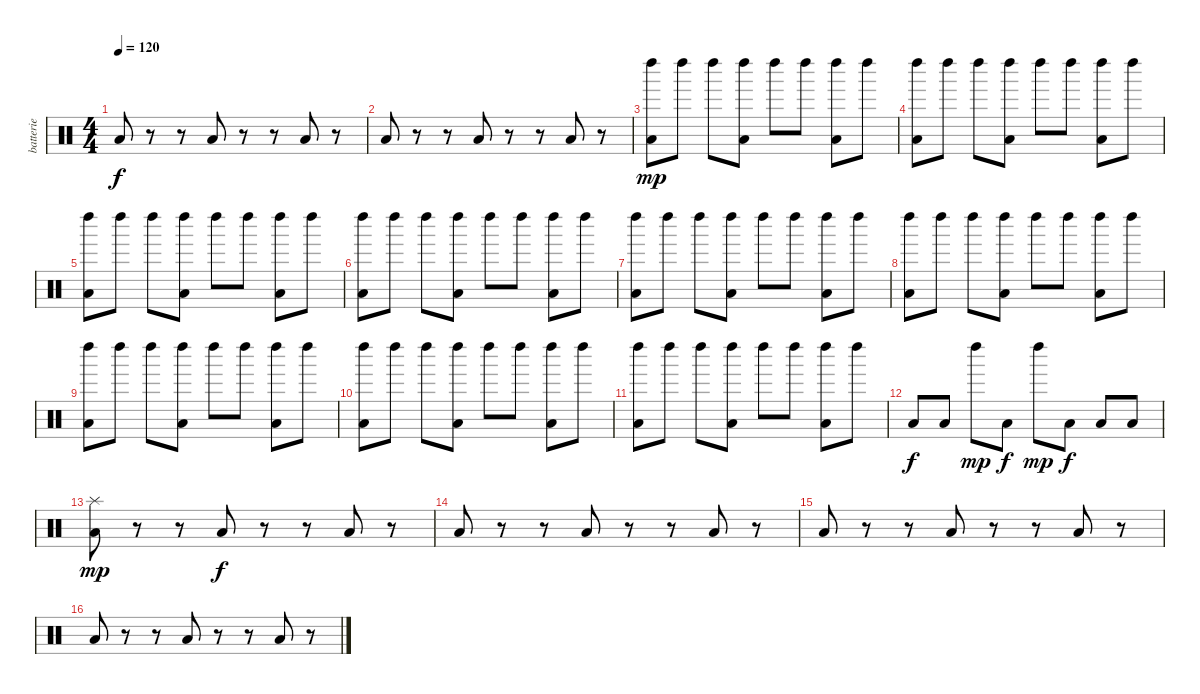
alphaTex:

\track ("batterie" "batterie") {instrument percussion}
\staff {score}
\articulation defaults
\ts (4 4)
\tempo 120
\clef neutral
\ks c "Low Floor Tom (hit)".8{dy f}
r.8 r.8 "Low Floor Tom (hit)".8 r.8 r.8 "Low Floor Tom (hit)".8 r.8 |
"Low Floor Tom (hit)".8 r.8 r.8 "Low Floor Tom (hit)".8 r.8 r.8 "Low Floor Tom (hit)".8 r.8 |
("Left Maraca (hit)" "Low Floor Tom (hit)").8{dy mp} "Left Maraca (hit)".8 "Left Maraca (hit)".8 ("Left Maraca (hit)" "Low Floor Tom (hit)").8 "Left Maraca (hit)".8 "Left Maraca (hit)".8 ("Left Maraca (hit)" "Low Floor Tom (hit)").8 "Left Maraca (hit)".8 |
("Left Maraca (hit)" "Low Floor Tom (hit)").8 "Left Maraca (hit)".8 "Left Maraca (hit)".8 ("Left Maraca (hit)" "Low Floor Tom (hit)").8 "Left Maraca (hit)".8 "Left Maraca (hit)".8 ("Left Maraca (hit)" "Low Floor Tom (hit)").8 "Left Maraca (hit)".8 |
("Left Maraca (hit)" "Low Floor Tom (hit)").8 "Left Maraca (hit)".8 "Left Maraca (hit)".8 ("Left Maraca (hit)" "Low Floor Tom (hit)").8 "Left Maraca (hit)".8 "Left Maraca (hit)".8 ("Left Maraca (hit)" "Low Floor Tom (hit)").8 "Left Maraca (hit)".8 |
("Left Maraca (hit)" "Low Floor Tom (hit)").8 "Left Maraca (hit)".8 "Left Maraca (hit)".8 ("Left Maraca (hit)" "Low Floor Tom (hit)").8 "Left Maraca (hit)".8 "Left Maraca (hit)".8 ("Left Maraca (hit)" "Low Floor Tom (hit)").8 "Left Maraca (hit)".8 |
("Left Maraca (hit)" "Low Floor Tom (hit)").8 "Left Maraca (hit)".8 "Left Maraca (hit)".8 ("Left Maraca (hit)" "Low Floor Tom (hit)").8 "Left Maraca (hit)".8 "Left Maraca (hit)".8 ("Left Maraca (hit)" "Low Floor Tom (hit)").8 "Left Maraca (hit)".8 |
("Left Maraca (hit)" "Low Floor Tom (hit)").8 "Left Maraca (hit)".8 "Left Maraca (hit)".8 ("Left Maraca (hit)" "Low Floor Tom (hit)").8 "Left Maraca (hit)".8 "Left Maraca (hit)".8 ("Left Maraca (hit)" "Low Floor Tom (hit)").8 "Left Maraca (hit)".8 |
("Left Maraca (hit)" "Low Floor Tom (hit)").8 "Left Maraca (hit)".8 "Left Maraca (hit)".8 ("Left Maraca (hit)" "Low Floor Tom (hit)").8 "Left Maraca (hit)".8 "Left Maraca (hit)".8 ("Left Maraca (hit)" "Low Floor Tom (hit)").8 "Left Maraca (hit)".8 |
("Left Maraca (hit)" "Low Floor Tom (hit)").8 "Left Maraca (hit)".8 "Left Maraca (hit)".8 ("Left Maraca (hit)" "Low Floor Tom (hit)").8 "Left Maraca (hit)".8 "Left Maraca (hit)".8 ("Left Maraca (hit)" "Low Floor Tom (hit)").8 "Left Maraca (hit)".8 |
("Left Maraca (hit)" "Low Floor Tom (hit)").8 "Left Maraca (hit)".8 "Left Maraca (hit)".8 ("Left Maraca (hit)" "Low Floor Tom (hit)").8 "Left Maraca (hit)".8 "Left Maraca (hit)".8 ("Left Maraca (hit)" "Low Floor Tom (hit)").8 "Left Maraca (hit)".8 |
"Low Floor Tom (hit)".8{dy f} "Low Floor Tom (hit)".8 "Left Maraca (hit)".8{dy mp} "Low Floor Tom (hit)".8{dy f} "Left Maraca (hit)".8{dy mp} "Low Floor Tom (hit)".8{dy f} "Low Floor Tom (hit)".8 "Low Floor Tom (hit)".8 |
("Splash (hit)" "Low Floor Tom (hit)").8{dy mp} r.8 r.8 "Low Floor Tom (hit)".8{dy f} r.8 r.8 "Low Floor Tom (hit)".8 r.8 |
"Low Floor Tom (hit)".8 r.8 r.8 "Low Floor Tom (hit)".8 r.8 r.8 "Low Floor Tom (hit)".8 r.8 |
"Low Floor Tom (hit)".8 r.8 r.8 "Low Floor Tom (hit)".8 r.8 r.8 "Low Floor Tom (hit)".8 r.8 |
"Low Floor Tom (hit)".8 r.8 r.8 "Low Floor Tom (hit)".8 r.8 r.8 "Low Floor Tom (hit)".8 r.8
